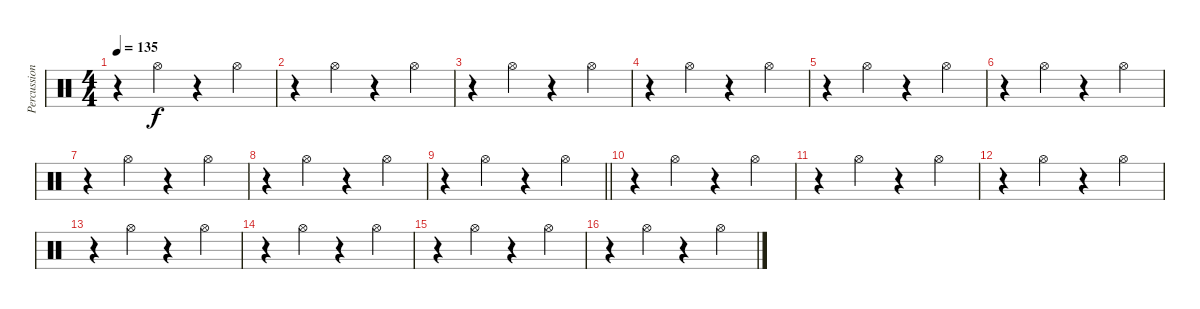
\track ("Percussions 1" "Percussion") {instrument percussion}
\staff {score}
\articulation defaults
\ts (4 4)
\tempo 135
\clef neutral
\ks c
r.4{dy f} "Hi-Hat (open)".4 r.4 "Hi-Hat (open)".4 |
r.4 "Hi-Hat (open)".4 r.4 "Hi-Hat (open)".4 |
r.4 "Hi-Hat (open)".4 r.4 "Hi-Hat (open)".4 |
r.4 "Hi-Hat (open)".4 r.4 "Hi-Hat (open)".4 |
r.4 "Hi-Hat (open)".4 r.4 "Hi-Hat (open)".4 |
r.4 "Hi-Hat (open)".4 r.4 "Hi-Hat (open)".4 |
r.4 "Hi-Hat (open)".4 r.4 "Hi-Hat (open)".4 |
r.4 "Hi-Hat (open)".4 r.4 "Hi-Hat (open)".4 |
\barLineRight lightlight
r.4 "Hi-Hat (open)".4 r.4 "Hi-Hat (open)".4 |
r.4 "Hi-Hat (open)".4 r.4 "Hi-Hat (open)".4 |
r.4 "Hi-Hat (open)".4 r.4 "Hi-Hat (open)".4 |
r.4 "Hi-Hat (open)".4 r.4 "Hi-Hat (open)".4 |
r.4 "Hi-Hat (open)".4 r.4 "Hi-Hat (open)".4 |
r.4 "Hi-Hat (open)".4 r.4 "Hi-Hat (open)".4 |
r.4 "Hi-Hat (open)".4 r.4 "Hi-Hat (open)".4 |
r.4 "Hi-Hat (open)".4 r.4 "Hi-Hat (open)".4
